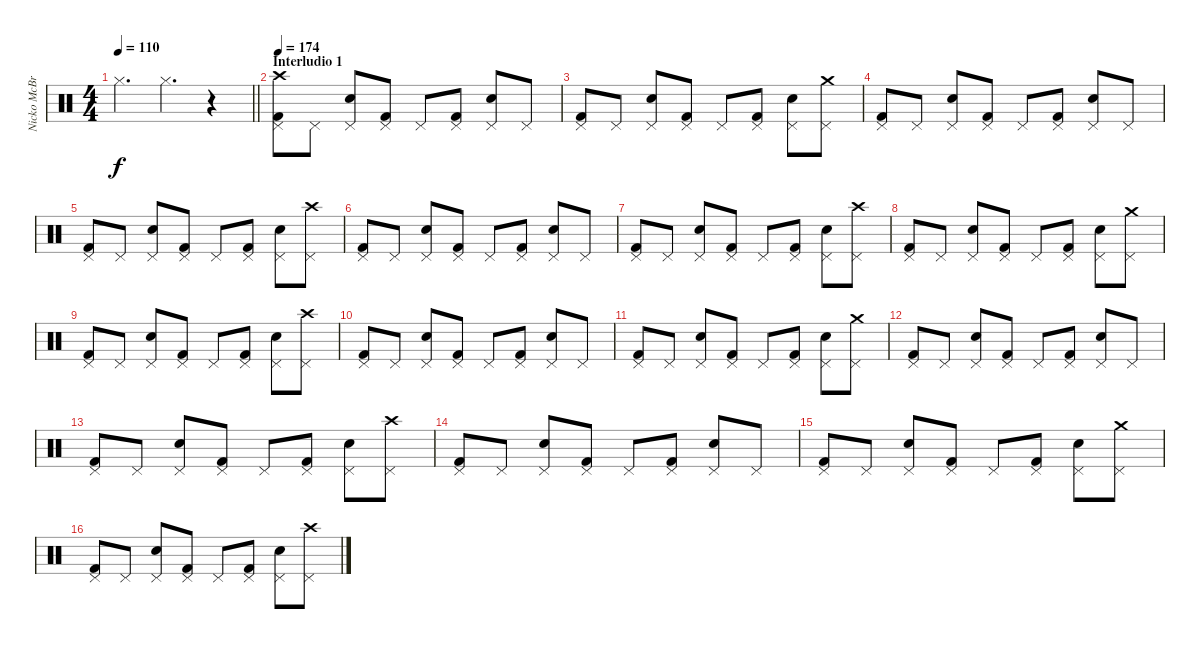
\track ("Nicko McBrain" "Nicko McBr") {instrument percussion}
\staff {score}
\articulation defaults
\ts (4 4)
\tempo 110
\clef neutral
\barLineRight lightlight
\ks c "Hi-Hat (closed)".4{d dy f} "Hi-Hat (closed)".4{d}
r.4 |
\section ("" "Interludio 1")
\tempo 174
("Kick (hit) 2" "Pedal Hi-Hat (hit)" "Crash high (hit)").8 "Pedal Hi-Hat (hit)".8 ("Snare (hit) 2" "Pedal Hi-Hat (hit)").8 ("Kick (hit) 2" "Pedal Hi-Hat (hit)").8 "Pedal Hi-Hat (hit)".8 ("Kick (hit) 2" "Pedal Hi-Hat (hit)").8 ("Snare (hit) 2" "Pedal Hi-Hat (hit)").8 "Pedal Hi-Hat (hit)".8 |
("Kick (hit) 2" "Pedal Hi-Hat (hit)").8 "Pedal Hi-Hat (hit)".8 ("Snare (hit) 2" "Pedal Hi-Hat (hit)").8 ("Kick (hit) 2" "Pedal Hi-Hat (hit)").8 "Pedal Hi-Hat (hit)".8 ("Kick (hit) 2" "Pedal Hi-Hat (hit)").8 ("Snare (hit) 2" "Pedal Hi-Hat (hit)").8 ("Pedal Hi-Hat (hit)" "Crash medium (hit)").8 |
("Kick (hit) 2" "Pedal Hi-Hat (hit)").8 "Pedal Hi-Hat (hit)".8 ("Snare (hit) 2" "Pedal Hi-Hat (hit)").8 ("Kick (hit) 2" "Pedal Hi-Hat (hit)").8 "Pedal Hi-Hat (hit)".8 ("Kick (hit) 2" "Pedal Hi-Hat (hit)").8 ("Snare (hit) 2" "Pedal Hi-Hat (hit)").8 "Pedal Hi-Hat (hit)".8 |
("Kick (hit) 2" "Pedal Hi-Hat (hit)").8 "Pedal Hi-Hat (hit)".8 ("Snare (hit) 2" "Pedal Hi-Hat (hit)").8 ("Kick (hit) 2" "Pedal Hi-Hat (hit)").8 "Pedal Hi-Hat (hit)".8 ("Kick (hit) 2" "Pedal Hi-Hat (hit)").8 ("Snare (hit) 2" "Pedal Hi-Hat (hit)").8 ("Pedal Hi-Hat (hit)" "Crash high (hit)").8 |
("Kick (hit) 2" "Pedal Hi-Hat (hit)").8 "Pedal Hi-Hat (hit)".8 ("Snare (hit) 2" "Pedal Hi-Hat (hit)").8 ("Kick (hit) 2" "Pedal Hi-Hat (hit)").8 "Pedal Hi-Hat (hit)".8 ("Kick (hit) 2" "Pedal Hi-Hat (hit)").8 ("Snare (hit) 2" "Pedal Hi-Hat (hit)").8 "Pedal Hi-Hat (hit)".8 |
("Kick (hit) 2" "Pedal Hi-Hat (hit)").8 "Pedal Hi-Hat (hit)".8 ("Snare (hit) 2" "Pedal Hi-Hat (hit)").8 ("Kick (hit) 2" "Pedal Hi-Hat (hit)").8 "Pedal Hi-Hat (hit)".8 ("Kick (hit) 2" "Pedal Hi-Hat (hit)").8 ("Snare (hit) 2" "Pedal Hi-Hat (hit)").8 ("Pedal Hi-Hat (hit)" "Crash high (hit)").8 |
("Kick (hit) 2" "Pedal Hi-Hat (hit)").8 "Pedal Hi-Hat (hit)".8 ("Snare (hit) 2" "Pedal Hi-Hat (hit)").8 ("Kick (hit) 2" "Pedal Hi-Hat (hit)").8 "Pedal Hi-Hat (hit)".8 ("Kick (hit) 2" "Pedal Hi-Hat (hit)").8 ("Snare (hit) 2" "Pedal Hi-Hat (hit)").8 ("Pedal Hi-Hat (hit)" "Crash medium (hit)").8 |
("Kick (hit) 2" "Pedal Hi-Hat (hit)").8 "Pedal Hi-Hat (hit)".8 ("Snare (hit) 2" "Pedal Hi-Hat (hit)").8 ("Kick (hit) 2" "Pedal Hi-Hat (hit)").8 "Pedal Hi-Hat (hit)".8 ("Kick (hit) 2" "Pedal Hi-Hat (hit)").8 ("Snare (hit) 2" "Pedal Hi-Hat (hit)").8 ("Pedal Hi-Hat (hit)" "Crash high (hit)").8 |
("Kick (hit) 2" "Pedal Hi-Hat (hit)").8 "Pedal Hi-Hat (hit)".8 ("Snare (hit) 2" "Pedal Hi-Hat (hit)").8 ("Kick (hit) 2" "Pedal Hi-Hat (hit)").8 "Pedal Hi-Hat (hit)".8 ("Kick (hit) 2" "Pedal Hi-Hat (hit)").8 ("Snare (hit) 2" "Pedal Hi-Hat (hit)").8 "Pedal Hi-Hat (hit)".8 |
("Kick (hit) 2" "Pedal Hi-Hat (hit)").8 "Pedal Hi-Hat (hit)".8 ("Snare (hit) 2" "Pedal Hi-Hat (hit)").8 ("Kick (hit) 2" "Pedal Hi-Hat (hit)").8 "Pedal Hi-Hat (hit)".8 ("Kick (hit) 2" "Pedal Hi-Hat (hit)").8 ("Snare (hit) 2" "Pedal Hi-Hat (hit)").8 ("Pedal Hi-Hat (hit)" "Crash medium (hit)").8 |
("Kick (hit) 2" "Pedal Hi-Hat (hit)").8 "Pedal Hi-Hat (hit)".8 ("Snare (hit) 2" "Pedal Hi-Hat (hit)").8 ("Kick (hit) 2" "Pedal Hi-Hat (hit)").8 "Pedal Hi-Hat (hit)".8 ("Kick (hit) 2" "Pedal Hi-Hat (hit)").8 ("Snare (hit) 2" "Pedal Hi-Hat (hit)").8 "Pedal Hi-Hat (hit)".8 |
("Kick (hit) 2" "Pedal Hi-Hat (hit)").8 "Pedal Hi-Hat (hit)".8 ("Snare (hit) 2" "Pedal Hi-Hat (hit)").8 ("Kick (hit) 2" "Pedal Hi-Hat (hit)").8 "Pedal Hi-Hat (hit)".8 ("Kick (hit) 2" "Pedal Hi-Hat (hit)").8 ("Snare (hit) 2" "Pedal Hi-Hat (hit)").8 ("Pedal Hi-Hat (hit)" "Crash high (hit)").8 |
("Kick (hit) 2" "Pedal Hi-Hat (hit)").8 "Pedal Hi-Hat (hit)".8 ("Snare (hit) 2" "Pedal Hi-Hat (hit)").8 ("Kick (hit) 2" "Pedal Hi-Hat (hit)").8 "Pedal Hi-Hat (hit)".8 ("Kick (hit) 2" "Pedal Hi-Hat (hit)").8 ("Snare (hit) 2" "Pedal Hi-Hat (hit)").8 "Pedal Hi-Hat (hit)".8 |
("Kick (hit) 2" "Pedal Hi-Hat (hit)").8 "Pedal Hi-Hat (hit)".8 ("Snare (hit) 2" "Pedal Hi-Hat (hit)").8 ("Kick (hit) 2" "Pedal Hi-Hat (hit)").8 "Pedal Hi-Hat (hit)".8 ("Kick (hit) 2" "Pedal Hi-Hat (hit)").8 ("Snare (hit) 2" "Pedal Hi-Hat (hit)").8 ("Pedal Hi-Hat (hit)" "Crash medium (hit)").8 |
("Kick (hit) 2" "Pedal Hi-Hat (hit)").8 "Pedal Hi-Hat (hit)".8 ("Snare (hit) 2" "Pedal Hi-Hat (hit)").8 ("Kick (hit) 2" "Pedal Hi-Hat (hit)").8 "Pedal Hi-Hat (hit)".8 ("Kick (hit) 2" "Pedal Hi-Hat (hit)").8 ("Snare (hit) 2" "Pedal Hi-Hat (hit)").8 ("Pedal Hi-Hat (hit)" "Crash high (hit)").8
